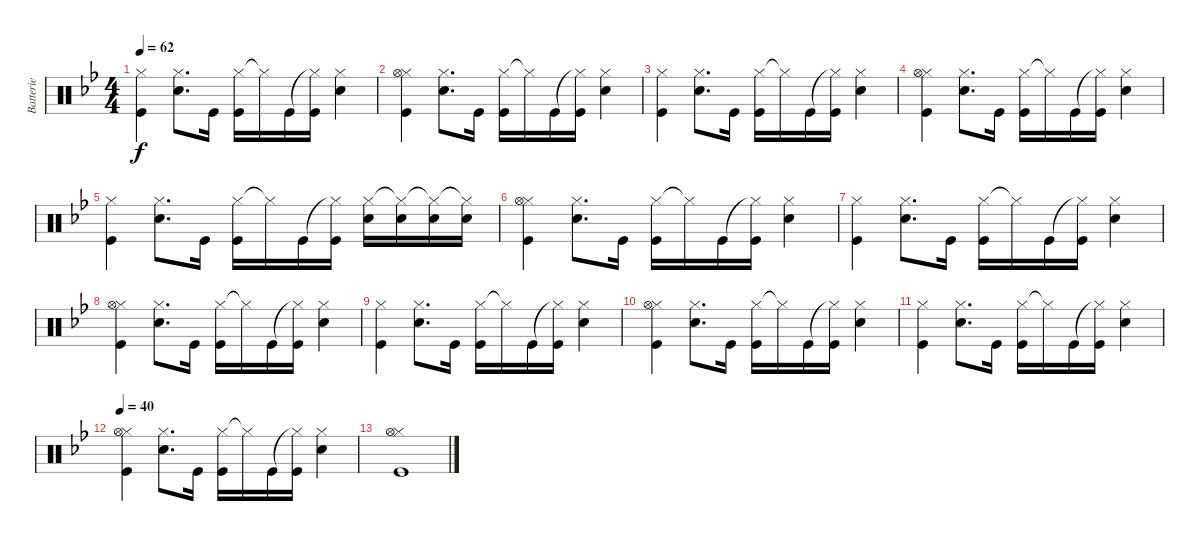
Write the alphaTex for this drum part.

\track ("Batterie" "Batterie") {instrument percussion}
\staff {score}
\articulation defaults
\ts (4 4)
\tempo 62
\clef neutral
\ks bb
("Hi-Hat (closed)" "Kick (hit)").4{dy f} ("Hi-Hat (closed)" "Snare (hit) 2").8{d} "Kick (hit)".16 ("Hi-Hat (closed)" "Kick (hit)").16 "Hi-Hat (closed)"{t}.16 "Kick (hit)".16 ("Hi-Hat (closed)"{t} "Kick (hit)").16 ("Hi-Hat (closed)" "Snare (hit) 2").4 |
("Hi-Hat (closed)" "Hi-Hat (open)" "Kick (hit)").4 ("Hi-Hat (closed)" "Snare (hit) 2").8{d} "Kick (hit)".16 ("Hi-Hat (closed)" "Kick (hit)").16 "Hi-Hat (closed)"{t}.16 "Kick (hit)".16 ("Hi-Hat (closed)"{t} "Kick (hit)").16 ("Hi-Hat (closed)" "Snare (hit) 2").4 |
("Hi-Hat (closed)" "Kick (hit)").4 ("Hi-Hat (closed)" "Snare (hit) 2").8{d} "Kick (hit)".16 ("Hi-Hat (closed)" "Kick (hit)").16 "Hi-Hat (closed)"{t}.16 "Kick (hit)".16 ("Hi-Hat (closed)"{t} "Kick (hit)").16 ("Hi-Hat (closed)" "Snare (hit) 2").4 |
("Hi-Hat (closed)" "Hi-Hat (open)" "Kick (hit)").4 ("Hi-Hat (closed)" "Snare (hit) 2").8{d} "Kick (hit)".16 ("Hi-Hat (closed)" "Kick (hit)").16 "Hi-Hat (closed)"{t}.16 "Kick (hit)".16 ("Hi-Hat (closed)"{t} "Kick (hit)").16 ("Hi-Hat (closed)" "Snare (hit) 2").4 |
("Hi-Hat (closed)" "Kick (hit)").4 ("Hi-Hat (closed)" "Snare (hit) 2").8{d} "Kick (hit)".16 ("Hi-Hat (closed)" "Kick (hit)").16 "Hi-Hat (closed)"{t}.16 "Kick (hit)".16 ("Hi-Hat (closed)"{t} "Kick (hit)").16 ("Hi-Hat (closed)" "Snare (hit) 2").16 ("Hi-Hat (closed)"{t} "Snare (hit) 2").16 ("Hi-Hat (closed)"{t} "Snare (hit) 2").16 ("Hi-Hat (closed)"{t} "Snare (hit) 2").16 |
("Hi-Hat (closed)" "Hi-Hat (open)" "Kick (hit)").4 ("Hi-Hat (closed)" "Snare (hit) 2").8{d} "Kick (hit)".16 ("Hi-Hat (closed)" "Kick (hit)").16 "Hi-Hat (closed)"{t}.16 "Kick (hit)".16 ("Hi-Hat (closed)"{t} "Kick (hit)").16 ("Hi-Hat (closed)" "Snare (hit) 2").4 |
("Hi-Hat (closed)" "Kick (hit)").4 ("Hi-Hat (closed)" "Snare (hit) 2").8{d} "Kick (hit)".16 ("Hi-Hat (closed)" "Kick (hit)").16 "Hi-Hat (closed)"{t}.16 "Kick (hit)".16 ("Hi-Hat (closed)"{t} "Kick (hit)").16 ("Hi-Hat (closed)" "Snare (hit) 2").4 |
("Hi-Hat (closed)" "Hi-Hat (open)" "Kick (hit)").4 ("Hi-Hat (closed)" "Snare (hit) 2").8{d} "Kick (hit)".16 ("Hi-Hat (closed)" "Kick (hit)").16 "Hi-Hat (closed)"{t}.16 "Kick (hit)".16 ("Hi-Hat (closed)"{t} "Kick (hit)").16 ("Hi-Hat (closed)" "Snare (hit) 2").4 |
("Hi-Hat (closed)" "Kick (hit)").4 ("Hi-Hat (closed)" "Snare (hit) 2").8{d} "Kick (hit)".16 ("Hi-Hat (closed)" "Kick (hit)").16 "Hi-Hat (closed)"{t}.16 "Kick (hit)".16 ("Hi-Hat (closed)"{t} "Kick (hit)").16 ("Hi-Hat (closed)" "Snare (hit) 2").4 |
("Hi-Hat (closed)" "Hi-Hat (open)" "Kick (hit)").4 ("Hi-Hat (closed)" "Snare (hit) 2").8{d} "Kick (hit)".16 ("Hi-Hat (closed)" "Kick (hit)").16 "Hi-Hat (closed)"{t}.16 "Kick (hit)".16 ("Hi-Hat (closed)"{t} "Kick (hit)").16 ("Hi-Hat (closed)" "Snare (hit) 2").4 |
("Hi-Hat (closed)" "Kick (hit)").4 ("Hi-Hat (closed)" "Snare (hit) 2").8{d} "Kick (hit)".16 ("Hi-Hat (closed)" "Kick (hit)").16 "Hi-Hat (closed)"{t}.16 "Kick (hit)".16 ("Hi-Hat (closed)"{t} "Kick (hit)").16 ("Hi-Hat (closed)" "Snare (hit) 2").4 |
\tempo 40
("Hi-Hat (closed)" "Hi-Hat (open)" "Kick (hit)").4 ("Hi-Hat (closed)" "Snare (hit) 2").8{d} "Kick (hit)".16 ("Hi-Hat (closed)" "Kick (hit)").16 "Hi-Hat (closed)"{t}.16 "Kick (hit)".16 ("Hi-Hat (closed)"{t} "Kick (hit)").16 ("Hi-Hat (closed)" "Snare (hit) 2").4 |
("Hi-Hat (closed)" "Hi-Hat (open)" "Kick (hit)").1
